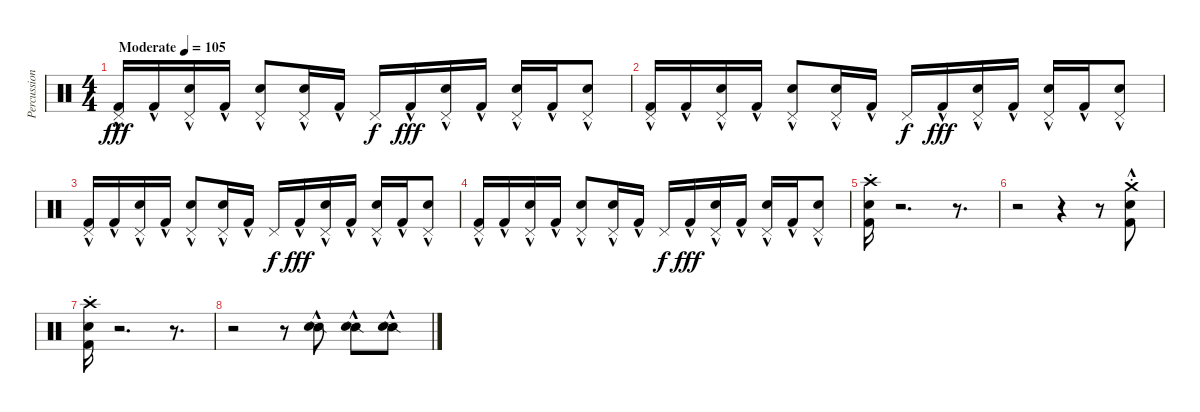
\track ("Percussion" "Percussion") {instrument percussion}
\staff {score}
\articulation defaults
\ts (4 4)
\tempo (105 "Moderate")
\clef neutral
\ks c
("Kick (hit) 2"{hac} "Pedal Hi-Hat (hit)").16{dy fff} "Kick (hit) 2"{hac}.16 ("Snare (hit) 2"{hac} "Pedal Hi-Hat (hit)").16 "Kick (hit) 2"{hac}.16 ("Snare (hit) 2"{hac} "Pedal Hi-Hat (hit)").8 ("Snare (hit) 2"{hac} "Pedal Hi-Hat (hit)").16 "Kick (hit) 2"{hac}.16 "Pedal Hi-Hat (hit)".16{dy f} "Kick (hit) 2"{hac}.16{dy fff} ("Snare (hit) 2"{hac} "Pedal Hi-Hat (hit)").16 "Kick (hit) 2"{hac}.16 ("Snare (hit) 2"{hac} "Pedal Hi-Hat (hit)").16 "Kick (hit) 2"{hac}.16 ("Snare (hit) 2"{hac} "Pedal Hi-Hat (hit)").8 |
("Kick (hit) 2"{hac} "Pedal Hi-Hat (hit)").16 "Kick (hit) 2"{hac}.16 ("Snare (hit) 2"{hac} "Pedal Hi-Hat (hit)").16 "Kick (hit) 2"{hac}.16 ("Snare (hit) 2"{hac} "Pedal Hi-Hat (hit)").8 ("Snare (hit) 2"{hac} "Pedal Hi-Hat (hit)").16 "Kick (hit) 2"{hac}.16 "Pedal Hi-Hat (hit)".16{dy f} "Kick (hit) 2"{hac}.16{dy fff} ("Snare (hit) 2"{hac} "Pedal Hi-Hat (hit)").16 "Kick (hit) 2"{hac}.16 ("Snare (hit) 2"{hac} "Pedal Hi-Hat (hit)").16 "Kick (hit) 2"{hac}.16 ("Snare (hit) 2"{hac} "Pedal Hi-Hat (hit)").8 |
("Kick (hit) 2"{hac} "Pedal Hi-Hat (hit)").16 "Kick (hit) 2"{hac}.16 ("Snare (hit) 2"{hac} "Pedal Hi-Hat (hit)").16 "Kick (hit) 2"{hac}.16 ("Snare (hit) 2"{hac} "Pedal Hi-Hat (hit)").8 ("Snare (hit) 2"{hac} "Pedal Hi-Hat (hit)").16 "Kick (hit) 2"{hac}.16 "Pedal Hi-Hat (hit)".16{dy f} "Kick (hit) 2"{hac}.16{dy fff} ("Snare (hit) 2"{hac} "Pedal Hi-Hat (hit)").16 "Kick (hit) 2"{hac}.16 ("Snare (hit) 2"{hac} "Pedal Hi-Hat (hit)").16 "Kick (hit) 2"{hac}.16 ("Snare (hit) 2"{hac} "Pedal Hi-Hat (hit)").8 |
("Kick (hit) 2"{hac} "Pedal Hi-Hat (hit)").16 "Kick (hit) 2"{hac}.16 ("Snare (hit) 2"{hac} "Pedal Hi-Hat (hit)").16 "Kick (hit) 2"{hac}.16 ("Snare (hit) 2"{hac} "Pedal Hi-Hat (hit)").8 ("Snare (hit) 2"{hac} "Pedal Hi-Hat (hit)").16 "Kick (hit) 2"{hac}.16 "Pedal Hi-Hat (hit)".16{dy f} "Kick (hit) 2"{hac}.16{dy fff} ("Snare (hit) 2"{hac} "Pedal Hi-Hat (hit)").16 "Kick (hit) 2"{hac}.16 ("Snare (hit) 2"{hac} "Pedal Hi-Hat (hit)").16 "Kick (hit) 2"{hac}.16 ("Snare (hit) 2"{hac} "Pedal Hi-Hat (hit)").8 |
("Snare (hit) 2" "Kick (hit) 2" "Crash high (hit)"{st}).16 r.2{d} r.8{d} |
r.2 r.4 r.8 ("Crash medium (hit)"{st} "Snare (hit) 2" "Kick (hit) 2"{hac}).8 |
("Snare (hit) 2" "Kick (hit) 2" "Crash high (hit)"{st}).16 r.2{d} r.8{d} |
r.2 r.8 ("Snare (side stick) 2" "Hand Clap (hit)"{hac}).8 ("Snare (side stick) 2" "Hand Clap (hit)"{hac}).8 ("Snare (side stick) 2" "Hand Clap (hit)"{hac}).8
